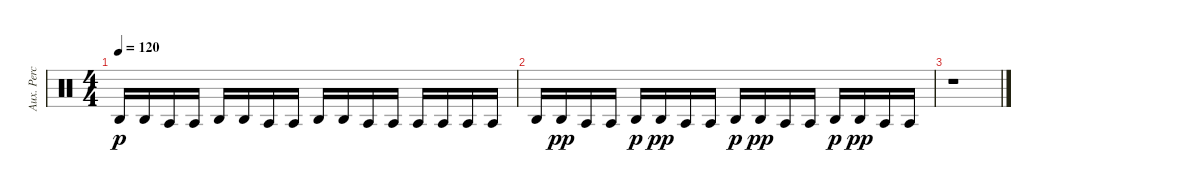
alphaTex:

\track ("Aux. Perc" "Aux. Perc") {instrument percussion}
\staff {score}
\articulation defaults
\ts (4 4)
\tempo 120
\clef neutral
\ks c "Agogo high (hit)".16{dy p} "Agogo high (hit)".16 "Agogo tow (hit)".16 "Agogo tow (hit)".16 "Agogo high (hit)".16 "Agogo high (hit)".16 "Agogo tow (hit)".16 "Agogo tow (hit)".16 "Agogo high (hit)".16 "Agogo high (hit)".16 "Agogo tow (hit)".16 "Agogo tow (hit)".16 "Agogo tow (hit)".16 "Agogo tow (hit)".16 "Agogo tow (hit)".16 "Agogo tow (hit)".16
|
"Agogo high (hit)".16 "Agogo high (hit)".16{dy pp} "Agogo tow (hit)".16 "Agogo tow (hit)".16 "Agogo high (hit)".16{dy p} "Agogo high (hit)".16{dy pp} "Agogo tow (hit)".16 "Agogo tow (hit)".16 "Agogo high (hit)".16{dy p} "Agogo high (hit)".16{dy pp} "Agogo tow (hit)".16 "Agogo tow (hit)".16 "Agogo high (hit)".16{dy p} "Agogo high (hit)".16{dy pp} "Agogo tow (hit)".16 "Agogo tow (hit)".16 |
r.1
